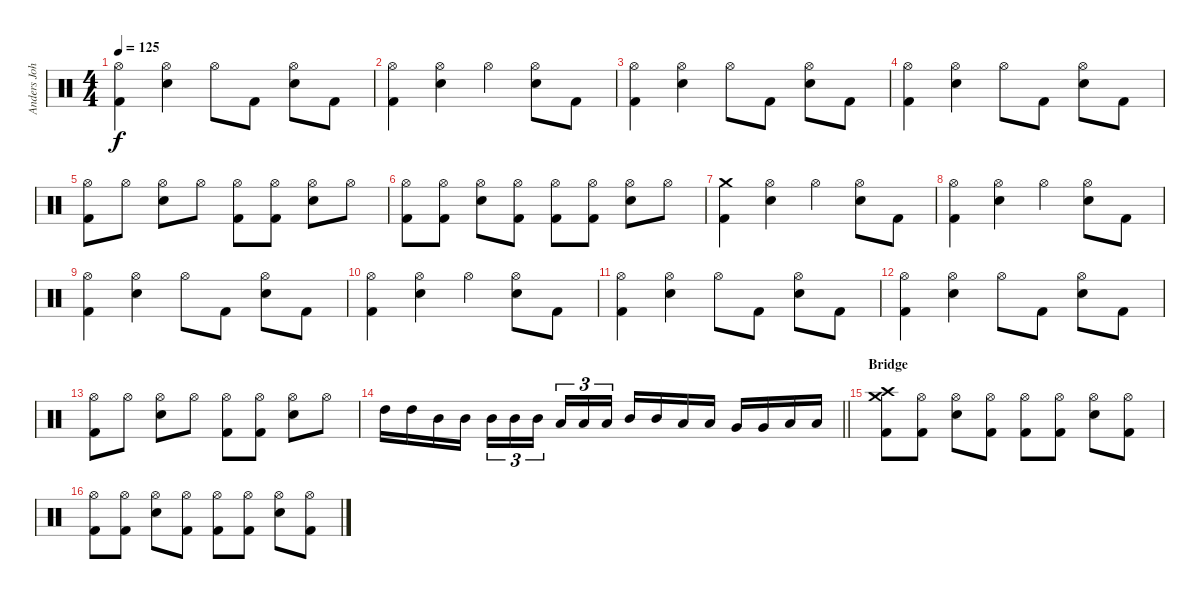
\track ("Anders Johansson" "Anders Joh") {instrument percussion}
\staff {score}
\articulation defaults
\ts (4 4)
\tempo 125
\clef neutral
\ks c
("Hi-Hat (open)" "Kick (hit) 2").4{dy f} ("Hi-Hat (open)" "Snare (hit) 2").4 "Hi-Hat (open)".8 "Kick (hit) 2".8 ("Hi-Hat (open)" "Snare (hit) 2").8 "Kick (hit) 2".8 |
("Hi-Hat (open)" "Kick (hit) 2").4 ("Hi-Hat (open)" "Snare (hit) 2").4 "Hi-Hat (open)".4 ("Hi-Hat (open)" "Snare (hit) 2").8 "Kick (hit) 2".8 |
("Hi-Hat (open)" "Kick (hit) 2").4 ("Hi-Hat (open)" "Snare (hit) 2").4 "Hi-Hat (open)".8 "Kick (hit) 2".8 ("Hi-Hat (open)" "Snare (hit) 2").8 "Kick (hit) 2".8 |
("Hi-Hat (open)" "Kick (hit) 2").4 ("Hi-Hat (open)" "Snare (hit) 2").4 "Hi-Hat (open)".8 "Kick (hit) 2".8 ("Hi-Hat (open)" "Snare (hit) 2").8 "Kick (hit) 2".8 |
("Hi-Hat (open)" "Kick (hit) 2").8 "Hi-Hat (open)".8 ("Hi-Hat (open)" "Snare (hit) 2").8 "Hi-Hat (open)".8 ("Hi-Hat (open)" "Kick (hit) 2").8 ("Hi-Hat (open)" "Kick (hit) 2").8 ("Hi-Hat (open)" "Snare (hit) 2").8 "Hi-Hat (open)".8 |
("Hi-Hat (open)" "Kick (hit) 2").8 ("Hi-Hat (open)" "Kick (hit) 2").8 ("Hi-Hat (open)" "Snare (hit) 2").8 ("Hi-Hat (open)" "Kick (hit) 2").8 ("Hi-Hat (open)" "Kick (hit) 2").8 ("Hi-Hat (open)" "Kick (hit) 2").8 ("Hi-Hat (open)" "Snare (hit) 2").8 "Hi-Hat (open)".8 |
("Crash medium (hit)" "Kick (hit) 2").4 ("Hi-Hat (open)" "Snare (hit) 2").4 "Hi-Hat (open)".4 ("Hi-Hat (open)" "Snare (hit) 2").8 "Kick (hit) 2".8 |
("Hi-Hat (open)" "Kick (hit) 2").4 ("Hi-Hat (open)" "Snare (hit) 2").4 "Hi-Hat (open)".4 ("Hi-Hat (open)" "Snare (hit) 2").8 "Kick (hit) 2".8 |
("Hi-Hat (open)" "Kick (hit) 2").4 ("Hi-Hat (open)" "Snare (hit) 2").4 "Hi-Hat (open)".8 "Kick (hit) 2".8 ("Hi-Hat (open)" "Snare (hit) 2").8 "Kick (hit) 2".8 |
("Hi-Hat (open)" "Kick (hit) 2").4 ("Hi-Hat (open)" "Snare (hit) 2").4 "Hi-Hat (open)".4 ("Hi-Hat (open)" "Snare (hit) 2").8 "Kick (hit) 2".8 |
("Hi-Hat (open)" "Kick (hit) 2").4 ("Hi-Hat (open)" "Snare (hit) 2").4 "Hi-Hat (open)".8 "Kick (hit) 2".8 ("Hi-Hat (open)" "Snare (hit) 2").8 "Kick (hit) 2".8 |
("Hi-Hat (open)" "Kick (hit) 2").4 ("Hi-Hat (open)" "Snare (hit) 2").4 "Hi-Hat (open)".8 "Kick (hit) 2".8 ("Hi-Hat (open)" "Snare (hit) 2").8 "Kick (hit) 2".8 |
("Hi-Hat (open)" "Kick (hit) 2").8 "Hi-Hat (open)".8 ("Hi-Hat (open)" "Snare (hit) 2").8 "Hi-Hat (open)".8 ("Hi-Hat (open)" "Kick (hit) 2").8 ("Hi-Hat (open)" "Kick (hit) 2").8 ("Hi-Hat (open)" "Snare (hit) 2").8 "Hi-Hat (open)".8 |
\barLineRight lightlight "High Tom (hit)".16 "High Tom (hit)".16 "Mid Tom (hit)".16 "Mid Tom (hit)".16 "Mid Tom (hit)".16{tu (3 2)} "Mid Tom (hit)".16{tu (3 2)} "Mid Tom (hit)".16{tu (3 2) beam splitsecondary} "Low Tom (hit)".16{tu (3 2)} "Low Tom (hit)".16{tu (3 2)} "Low Tom (hit)".16{tu (3 2)} "Mid Tom (hit)".16 "Mid Tom (hit)".16 "Low Tom (hit)".16 "Low Tom (hit)".16 "Very Low Tom (hit)".16 "Very Low Tom (hit)".16 "Low Floor Tom (hit)".16 "Low Floor Tom (hit)".16
|
\section ("" "Bridge")
("Crash high (hit)" "Crash medium (hit)" "Kick (hit) 2").8 ("Hi-Hat (open)" "Kick (hit) 2").8 ("Hi-Hat (open)" "Snare (hit) 2").8 ("Hi-Hat (open)" "Kick (hit) 2").8 ("Hi-Hat (open)" "Kick (hit) 2").8 ("Hi-Hat (open)" "Kick (hit) 2").8 ("Hi-Hat (open)" "Snare (hit) 2").8 ("Hi-Hat (open)" "Kick (hit) 2").8 |
("Hi-Hat (open)" "Kick (hit) 2").8 ("Hi-Hat (open)" "Kick (hit) 2").8 ("Hi-Hat (open)" "Snare (hit) 2").8 ("Hi-Hat (open)" "Kick (hit) 2").8 ("Hi-Hat (open)" "Kick (hit) 2").8 ("Hi-Hat (open)" "Kick (hit) 2").8 ("Hi-Hat (open)" "Snare (hit) 2").8 ("Hi-Hat (open)" "Kick (hit) 2").8
